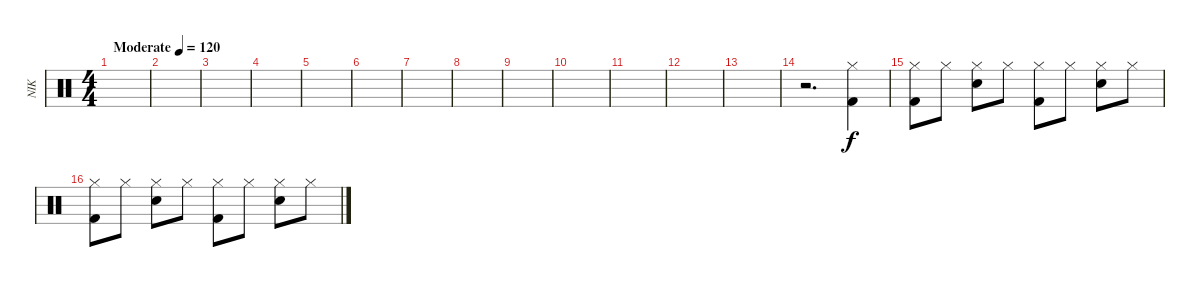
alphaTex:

\track ("NIK" "NIK") {instrument percussion}
\staff {score}
\articulation defaults
\ts (4 4)
\tempo (120 "Moderate")
\clef neutral
\ks c
|
|
|
|
|
|
|
|
|
|
|
|
|
r.2{d} ("Hi-Hat (closed)" "Kick (hit) 2").4 |
("Hi-Hat (closed)" "Kick (hit) 2").8 "Hi-Hat (closed)".8 ("Hi-Hat (closed)" "Electric Snare (hit)").8 "Hi-Hat (closed)".8 ("Hi-Hat (closed)" "Kick (hit) 2").8 "Hi-Hat (closed)".8 ("Hi-Hat (closed)" "Electric Snare (hit)").8 "Hi-Hat (closed)".8 |
("Hi-Hat (closed)" "Kick (hit) 2").8 "Hi-Hat (closed)".8 ("Hi-Hat (closed)" "Electric Snare (hit)").8 "Hi-Hat (closed)".8 ("Hi-Hat (closed)" "Kick (hit) 2").8 "Hi-Hat (closed)".8 ("Hi-Hat (closed)" "Electric Snare (hit)").8 "Hi-Hat (closed)".8
